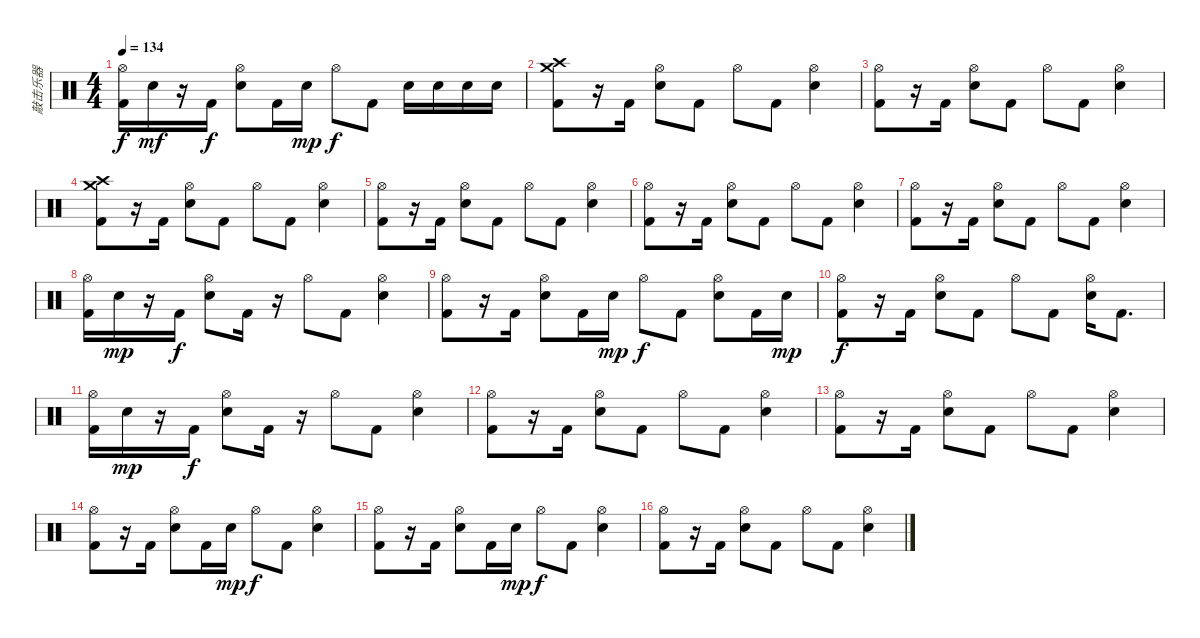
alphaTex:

\track ("敲击乐器" "敲击乐器") {instrument percussion}
\staff {score}
\articulation defaults
\ts (4 4)
\tempo 134
\clef neutral
\ks c
("Hi-Hat (open)" "Kick (hit) 2").16{dy f} "Electric Snare (hit)".16{dy mf} r.16 "Kick (hit) 2".16{dy f} ("Hi-Hat (open)" "Electric Snare (hit)").8 "Kick (hit) 2".16 "Electric Snare (hit)".16{dy mp} "Hi-Hat (open)".8{dy f} "Kick (hit) 2".8 "Electric Snare (hit)".16 "Electric Snare (hit)".16 "Electric Snare (hit)".16 "Electric Snare (hit)".16 |
("Crash high (hit)" "Crash medium (hit)" "Kick (hit) 2").8 r.16 "Kick (hit) 2".16 ("Hi-Hat (open)" "Electric Snare (hit)").8 "Kick (hit) 2".8 "Hi-Hat (open)".8 "Kick (hit) 2".8 ("Hi-Hat (open)" "Electric Snare (hit)").4 |
("Hi-Hat (open)" "Kick (hit) 2").8 r.16 "Kick (hit) 2".16 ("Hi-Hat (open)" "Electric Snare (hit)").8 "Kick (hit) 2".8 "Hi-Hat (open)".8 "Kick (hit) 2".8 ("Hi-Hat (open)" "Electric Snare (hit)").4 |
("Crash high (hit)" "Crash medium (hit)" "Kick (hit) 2").8 r.16 "Kick (hit) 2".16 ("Hi-Hat (open)" "Electric Snare (hit)").8 "Kick (hit) 2".8 "Hi-Hat (open)".8 "Kick (hit) 2".8 ("Hi-Hat (open)" "Electric Snare (hit)").4 |
("Hi-Hat (open)" "Kick (hit) 2").8 r.16 "Kick (hit) 2".16 ("Hi-Hat (open)" "Electric Snare (hit)").8 "Kick (hit) 2".8 "Hi-Hat (open)".8 "Kick (hit) 2".8 ("Hi-Hat (open)" "Electric Snare (hit)").4 |
("Hi-Hat (open)" "Kick (hit) 2").8 r.16 "Kick (hit) 2".16 ("Hi-Hat (open)" "Electric Snare (hit)").8 "Kick (hit) 2".8 "Hi-Hat (open)".8 "Kick (hit) 2".8 ("Hi-Hat (open)" "Electric Snare (hit)").4 |
("Hi-Hat (open)" "Kick (hit) 2").8 r.16 "Kick (hit) 2".16 ("Hi-Hat (open)" "Electric Snare (hit)").8 "Kick (hit) 2".8 "Hi-Hat (open)".8 "Kick (hit) 2".8 ("Hi-Hat (open)" "Electric Snare (hit)").4 |
("Hi-Hat (open)" "Kick (hit) 2").16 "Electric Snare (hit)".16{dy mp} r.16 "Kick (hit) 2".16{dy f} ("Hi-Hat (open)" "Electric Snare (hit)").8 "Kick (hit) 2".16 r.16 "Hi-Hat (open)".8 "Kick (hit) 2".8 ("Hi-Hat (open)" "Electric Snare (hit)").4 |
("Hi-Hat (open)" "Kick (hit) 2").8 r.16 "Kick (hit) 2".16 ("Hi-Hat (open)" "Electric Snare (hit)").8 "Kick (hit) 2".16 "Electric Snare (hit)".16{dy mp} "Hi-Hat (open)".8{dy f} "Kick (hit) 2".8 ("Hi-Hat (open)" "Electric Snare (hit)").8 "Kick (hit) 2".16 "Electric Snare (hit)".16{dy mp} |
("Hi-Hat (open)" "Kick (hit) 2").8{dy f} r.16 "Kick (hit) 2".16 ("Hi-Hat (open)" "Electric Snare (hit)").8 "Kick (hit) 2".8 "Hi-Hat (open)".8 "Kick (hit) 2".8 ("Hi-Hat (open)" "Electric Snare (hit)").16 "Kick (hit) 2".8{d} |
("Hi-Hat (open)" "Kick (hit) 2").16 "Electric Snare (hit)".16{dy mp} r.16 "Kick (hit) 2".16{dy f} ("Hi-Hat (open)" "Electric Snare (hit)").8 "Kick (hit) 2".16 r.16 "Hi-Hat (open)".8 "Kick (hit) 2".8 ("Hi-Hat (open)" "Electric Snare (hit)").4 |
("Hi-Hat (open)" "Kick (hit) 2").8 r.16 "Kick (hit) 2".16 ("Hi-Hat (open)" "Electric Snare (hit)").8 "Kick (hit) 2".8 "Hi-Hat (open)".8 "Kick (hit) 2".8 ("Hi-Hat (open)" "Electric Snare (hit)").4 |
("Hi-Hat (open)" "Kick (hit) 2").8 r.16 "Kick (hit) 2".16 ("Hi-Hat (open)" "Electric Snare (hit)").8 "Kick (hit) 2".8 "Hi-Hat (open)".8 "Kick (hit) 2".8 ("Hi-Hat (open)" "Electric Snare (hit)").4 |
("Hi-Hat (open)" "Kick (hit) 2").8 r.16 "Kick (hit) 2".16 ("Hi-Hat (open)" "Electric Snare (hit)").8 "Kick (hit) 2".16 "Electric Snare (hit)".16{dy mp} "Hi-Hat (open)".8{dy f} "Kick (hit) 2".8 ("Hi-Hat (open)" "Electric Snare (hit)").4 |
("Hi-Hat (open)" "Kick (hit) 2").8 r.16 "Kick (hit) 2".16 ("Hi-Hat (open)" "Electric Snare (hit)").8 "Kick (hit) 2".16 "Electric Snare (hit)".16{dy mp} "Hi-Hat (open)".8{dy f} "Kick (hit) 2".8 ("Hi-Hat (open)" "Electric Snare (hit)").4 |
("Hi-Hat (open)" "Kick (hit) 2").8 r.16 "Kick (hit) 2".16 ("Hi-Hat (open)" "Electric Snare (hit)").8 "Kick (hit) 2".8 "Hi-Hat (open)".8 "Kick (hit) 2".8 ("Hi-Hat (open)" "Electric Snare (hit)").4
